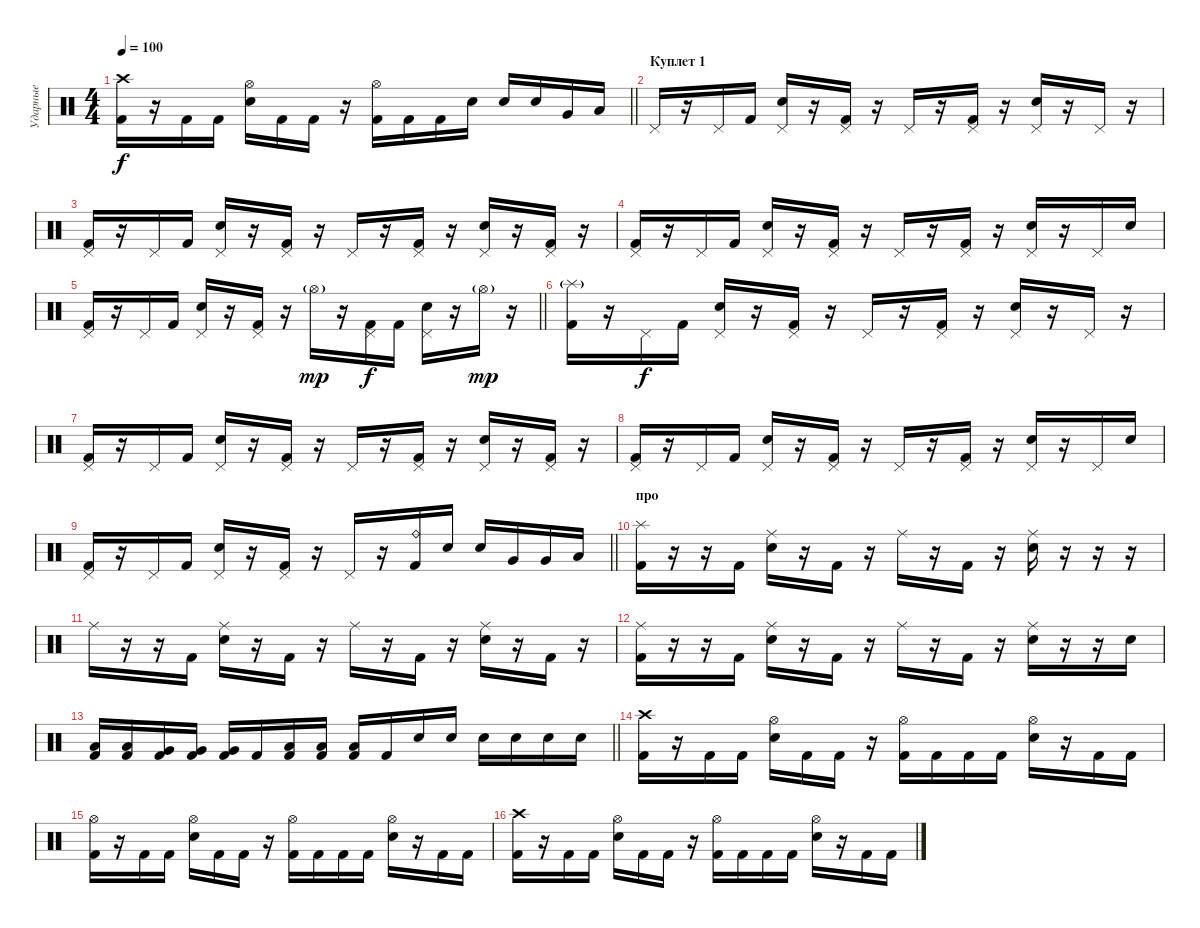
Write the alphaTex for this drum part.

\track ("Ударные" "Ударные") {instrument percussion}
\staff {score}
\articulation defaults
\ts (4 4)
\tempo 100
\clef neutral
\barLineRight lightlight
\ks c
("Crash high (hit)" "Kick (hit) 2").16{dy f} r.16 "Kick (hit) 2".16 "Kick (hit) 2".16 ("Hi-Hat (open)" "Snare (hit) 2").16 "Kick (hit) 2".16 "Kick (hit) 2".16 r.16 ("Hi-Hat (open)" "Kick (hit) 2").16 "Kick (hit) 2".16 "Kick (hit) 2".16 "Snare (hit) 2".16 "Snare (hit) 2".16 "Snare (hit) 2".16 "Very Low Tom (hit)".16 "Low Tom (hit)".16 |
\section ("" "Куплет 1")
"Pedal Hi-Hat (hit)".16 r.16 "Pedal Hi-Hat (hit)".16 "Kick (hit) 2".16 ("Pedal Hi-Hat (hit)" "Snare (hit) 2").16 r.16 ("Pedal Hi-Hat (hit)" "Kick (hit) 2").16 r.16 "Pedal Hi-Hat (hit)".16 r.16 ("Pedal Hi-Hat (hit)" "Kick (hit) 2").16 r.16 ("Pedal Hi-Hat (hit)" "Snare (hit) 2").16 r.16 "Pedal Hi-Hat (hit)".16 r.16 |
("Pedal Hi-Hat (hit)" "Kick (hit) 2").16 r.16 "Pedal Hi-Hat (hit)".16 "Kick (hit) 2".16 ("Pedal Hi-Hat (hit)" "Snare (hit) 2").16 r.16 ("Pedal Hi-Hat (hit)" "Kick (hit) 2").16 r.16 "Pedal Hi-Hat (hit)".16 r.16 ("Pedal Hi-Hat (hit)" "Kick (hit) 2").16 r.16 ("Pedal Hi-Hat (hit)" "Snare (hit) 2").16 r.16 ("Pedal Hi-Hat (hit)" "Kick (hit) 2").16 r.16 |
("Pedal Hi-Hat (hit)" "Kick (hit) 2").16 r.16 "Pedal Hi-Hat (hit)".16 "Kick (hit) 2".16 ("Pedal Hi-Hat (hit)" "Snare (hit) 2").16 r.16 ("Pedal Hi-Hat (hit)" "Kick (hit) 2").16 r.16 "Pedal Hi-Hat (hit)".16 r.16 ("Pedal Hi-Hat (hit)" "Kick (hit) 2").16 r.16 ("Pedal Hi-Hat (hit)" "Snare (hit) 2").16 r.16 "Pedal Hi-Hat (hit)".16 "Snare (hit) 2".16 |
\barLineRight lightlight
("Pedal Hi-Hat (hit)" "Kick (hit) 2").16 r.16 "Pedal Hi-Hat (hit)".16 "Kick (hit) 2".16 ("Pedal Hi-Hat (hit)" "Snare (hit) 2").16 r.16 ("Pedal Hi-Hat (hit)" "Kick (hit) 2").16 r.16 "Hi-Hat (open)"{g}.16{dy mp} r.16 ("Pedal Hi-Hat (hit)" "Kick (hit) 2").16{dy f} "Kick (hit) 2".16 ("Pedal Hi-Hat (hit)" "Snare (hit) 2").16 r.16 "Hi-Hat (open)"{g}.16{dy mp} r.16 |
("Splash (hit)"{g} "Kick (hit) 2").16 r.16 "Pedal Hi-Hat (hit)".16{dy f} "Kick (hit) 2".16 ("Pedal Hi-Hat (hit)" "Snare (hit) 2").16 r.16 ("Pedal Hi-Hat (hit)" "Kick (hit) 2").16 r.16 "Pedal Hi-Hat (hit)".16 r.16 ("Pedal Hi-Hat (hit)" "Kick (hit) 2").16 r.16 ("Pedal Hi-Hat (hit)" "Snare (hit) 2").16 r.16 "Pedal Hi-Hat (hit)".16 r.16 |
("Pedal Hi-Hat (hit)" "Kick (hit) 2").16 r.16 "Pedal Hi-Hat (hit)".16 "Kick (hit) 2".16 ("Pedal Hi-Hat (hit)" "Snare (hit) 2").16 r.16 ("Pedal Hi-Hat (hit)" "Kick (hit) 2").16 r.16 "Pedal Hi-Hat (hit)".16 r.16 ("Pedal Hi-Hat (hit)" "Kick (hit) 2").16 r.16 ("Pedal Hi-Hat (hit)" "Snare (hit) 2").16 r.16 ("Pedal Hi-Hat (hit)" "Kick (hit) 2").16 r.16 |
("Pedal Hi-Hat (hit)" "Kick (hit) 2").16 r.16 "Pedal Hi-Hat (hit)".16 "Kick (hit) 2".16 ("Pedal Hi-Hat (hit)" "Snare (hit) 2").16 r.16 ("Pedal Hi-Hat (hit)" "Kick (hit) 2").16 r.16 "Pedal Hi-Hat (hit)".16 r.16 ("Pedal Hi-Hat (hit)" "Kick (hit) 2").16 r.16 ("Pedal Hi-Hat (hit)" "Snare (hit) 2").16 r.16 "Pedal Hi-Hat (hit)".16 "Snare (hit) 2".16 |
\barLineRight lightlight
("Pedal Hi-Hat (hit)" "Kick (hit) 2").16 r.16 "Pedal Hi-Hat (hit)".16 "Kick (hit) 2".16 ("Pedal Hi-Hat (hit)" "Snare (hit) 2").16 r.16 ("Pedal Hi-Hat (hit)" "Kick (hit) 2").16 r.16 "Pedal Hi-Hat (hit)".16 r.16 ("Ride (bell)" "Kick (hit) 2").16 "Snare (hit) 2".16 "Snare (hit) 2".16 "Very Low Tom (hit)".16 "Very Low Tom (hit)".16 "Low Tom (hit)".16 |
\section ("" "про")
("Splash (hit)" "Kick (hit) 2").16 r.16 r.16 "Kick (hit) 2".16 ("Ride (middle)" "Snare (hit) 2").16 r.16 "Kick (hit) 2".16 r.16 "Ride (middle)".16 r.16 "Kick (hit) 2".16 r.16 ("Ride (middle)" "Snare (hit) 2").16 r.16 r.16 r.16 |
"Ride (middle)".16 r.16 r.16 "Kick (hit) 2".16 ("Ride (middle)" "Snare (hit) 2").16 r.16 "Kick (hit) 2".16 r.16 "Ride (middle)".16 r.16 "Kick (hit) 2".16 r.16 ("Ride (middle)" "Snare (hit) 2").16 r.16 "Kick (hit) 2".16 r.16 |
("Ride (middle)" "Kick (hit) 2").16 r.16 r.16 "Kick (hit) 2".16 ("Ride (middle)" "Snare (hit) 2").16 r.16 "Kick (hit) 2".16 r.16 "Ride (middle)".16 r.16 "Kick (hit) 2".16 r.16 ("Ride (middle)" "Snare (hit) 2").16 r.16 r.16 "Snare (hit) 2".16 |
\barLineRight lightlight
("Low Floor Tom (hit)" "Kick (hit) 2").16 ("Low Floor Tom (hit)" "Kick (hit) 2").16 ("Very Low Tom (hit)" "Kick (hit) 2").16 ("Very Low Tom (hit)" "Kick (hit) 2").16 ("Very Low Tom (hit)" "Kick (hit) 2").16 "Kick (hit) 2".16 ("Low Tom (hit)" "Kick (hit) 2").16 ("Low Tom (hit)" "Kick (hit) 2").16 ("Low Tom (hit)" "Kick (hit) 2").16 "Kick (hit) 2".16 "Snare (hit) 2".16 "Snare (hit) 2".16 "Snare (hit) 2".16 "Snare (hit) 2".16 "Snare (hit) 2".16 "Snare (hit) 2".16 |
("Crash high (hit)" "Kick (hit) 2").16 r.16 "Kick (hit) 2".16 "Kick (hit) 2".16 ("Hi-Hat (open)" "Snare (hit) 2").16 "Kick (hit) 2".16 "Kick (hit) 2".16 r.16 ("Hi-Hat (open)" "Kick (hit) 2").16 "Kick (hit) 2".16 "Kick (hit) 2".16 "Kick (hit) 2".16 ("Hi-Hat (open)" "Snare (hit) 2").16 r.16 "Kick (hit) 2".16 "Kick (hit) 2".16 |
("Hi-Hat (open)" "Kick (hit) 2").16 r.16 "Kick (hit) 2".16 "Kick (hit) 2".16 ("Hi-Hat (open)" "Snare (hit) 2").16 "Kick (hit) 2".16 "Kick (hit) 2".16 r.16 ("Hi-Hat (open)" "Kick (hit) 2").16 "Kick (hit) 2".16 "Kick (hit) 2".16 "Kick (hit) 2".16 ("Hi-Hat (open)" "Snare (hit) 2").16 r.16 "Kick (hit) 2".16 "Kick (hit) 2".16 |
("Crash high (hit)" "Kick (hit) 2").16 r.16 "Kick (hit) 2".16 "Kick (hit) 2".16 ("Hi-Hat (open)" "Snare (hit) 2").16 "Kick (hit) 2".16 "Kick (hit) 2".16 r.16 ("Hi-Hat (open)" "Kick (hit) 2").16 "Kick (hit) 2".16 "Kick (hit) 2".16 "Kick (hit) 2".16 ("Hi-Hat (open)" "Snare (hit) 2").16 r.16 "Kick (hit) 2".16 "Kick (hit) 2".16
